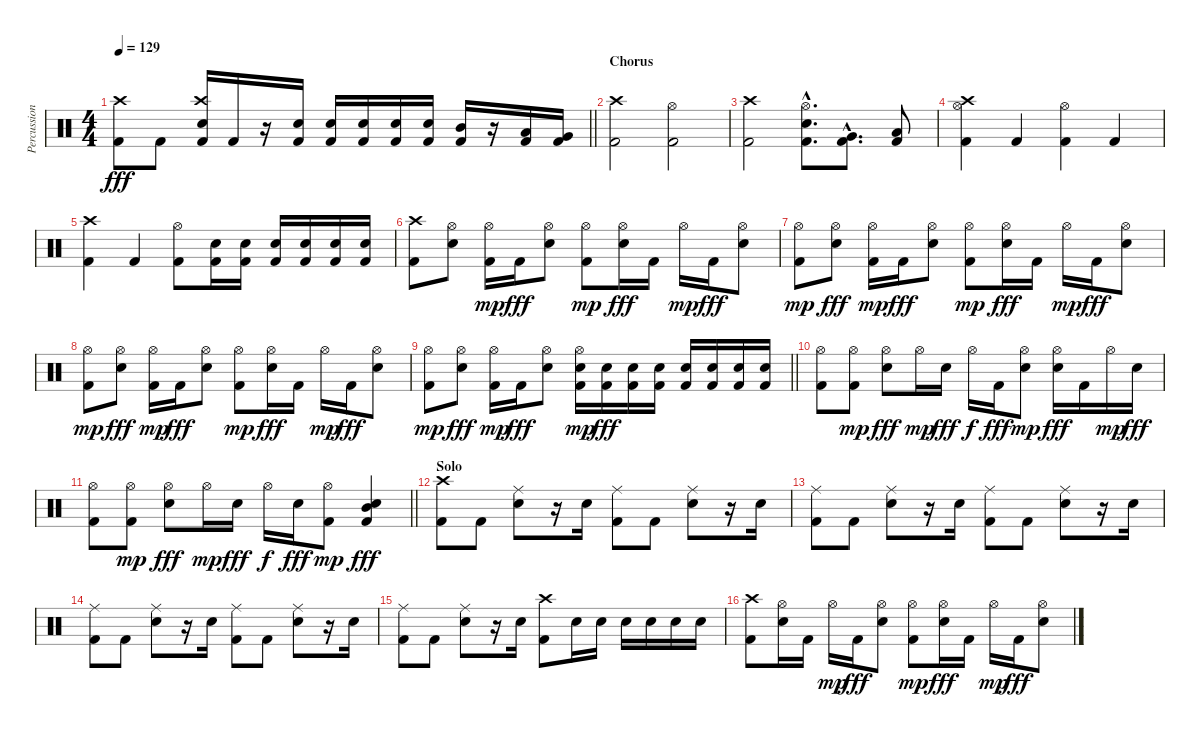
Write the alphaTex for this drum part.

\track ("Percussions" "Percussion") {instrument percussion}
\staff {score}
\articulation defaults
\ts (4 4)
\tempo 129
\clef neutral
\barLineRight lightlight
\ks c
("Kick (hit) 2" "Crash high (hit)").8{dy fff} "Kick (hit) 2".8 ("Kick (hit) 2" "Snare (hit) 2" "Crash high (hit)").16 "Kick (hit) 2".16 r.16 ("Kick (hit) 2" "Snare (hit) 2").16 ("Kick (hit) 2" "Snare (hit) 2").16 ("Kick (hit) 2" "Snare (hit) 2").16 ("Kick (hit) 2" "Snare (hit) 2").16 ("Kick (hit) 2" "Snare (hit) 2").16 ("Kick (hit) 2" "Mid Tom (hit)").16 r.16 ("Kick (hit) 2" "Low Tom (hit)").16 ("Kick (hit) 2" "Very Low Tom (hit)").16 |
\section ("" "Chorus")
("Kick (hit) 2" "Crash high (hit)").2 ("Kick (hit) 2" "Hi-Hat (open)").2 |
("Kick (hit) 2" "Crash high (hit)").2 ("Kick (hit) 2"{hac} "Snare (hit) 2"{hac} "Hi-Hat (open)"{hac}).8{d} ("Kick (hit) 2"{hac} "Very Low Tom (hit)"{hac}).8{d} ("Kick (hit) 2" "Low Tom (hit)").8 |
("Kick (hit) 2" "Crash high (hit)" "Hi-Hat (open)").4 "Kick (hit) 2".4 ("Kick (hit) 2" "Hi-Hat (open)").4 "Kick (hit) 2".4 |
("Kick (hit) 2" "Crash high (hit)").4 "Kick (hit) 2".4 ("Kick (hit) 2" "Hi-Hat (open)").8 ("Kick (hit) 2" "Snare (hit) 2").16 ("Kick (hit) 2" "Snare (hit) 2").16 ("Kick (hit) 2" "Snare (hit) 2").16 ("Kick (hit) 2" "Snare (hit) 2").16 ("Kick (hit) 2" "Snare (hit) 2").16 ("Kick (hit) 2" "Snare (hit) 2").16 |
("Kick (hit) 2" "Crash high (hit)").8 ("Snare (hit) 2" "Hi-Hat (open)").8 ("Kick (hit) 2" "Hi-Hat (open)").16{dy mp} "Kick (hit) 2".16{dy fff} ("Snare (hit) 2" "Hi-Hat (open)").8 ("Kick (hit) 2" "Hi-Hat (open)").8{dy mp} ("Snare (hit) 2" "Hi-Hat (open)").16{dy fff} "Kick (hit) 2".16 "Hi-Hat (open)".16{dy mp} "Kick (hit) 2".16{dy fff} ("Snare (hit) 2" "Hi-Hat (open)").8 |
("Kick (hit) 2" "Hi-Hat (open)").8{dy mp} ("Snare (hit) 2" "Hi-Hat (open)").8{dy fff} ("Kick (hit) 2" "Hi-Hat (open)").16{dy mp} "Kick (hit) 2".16{dy fff} ("Snare (hit) 2" "Hi-Hat (open)").8 ("Kick (hit) 2" "Hi-Hat (open)").8{dy mp} ("Snare (hit) 2" "Hi-Hat (open)").16{dy fff} "Kick (hit) 2".16 "Hi-Hat (open)".16{dy mp} "Kick (hit) 2".16{dy fff} ("Snare (hit) 2" "Hi-Hat (open)").8 |
("Kick (hit) 2" "Hi-Hat (open)").8{dy mp} ("Snare (hit) 2" "Hi-Hat (open)").8{dy fff} ("Kick (hit) 2" "Hi-Hat (open)").16{dy mp} "Kick (hit) 2".16{dy fff} ("Snare (hit) 2" "Hi-Hat (open)").8 ("Kick (hit) 2" "Hi-Hat (open)").8{dy mp} ("Snare (hit) 2" "Hi-Hat (open)").16{dy fff} "Kick (hit) 2".16 "Hi-Hat (open)".16{dy mp} "Kick (hit) 2".16{dy fff} ("Snare (hit) 2" "Hi-Hat (open)").8 |
\barLineRight lightlight
("Kick (hit) 2" "Hi-Hat (open)").8{dy mp} ("Snare (hit) 2" "Hi-Hat (open)").8{dy fff} ("Kick (hit) 2" "Hi-Hat (open)").16{dy mp} "Kick (hit) 2".16{dy fff} ("Snare (hit) 2" "Hi-Hat (open)").8 ("Kick (hit) 2" "Snare (hit) 2" "Hi-Hat (open)").16{dy mp} ("Kick (hit) 2" "Snare (hit) 2").16{dy fff} ("Kick (hit) 2" "Snare (hit) 2").16 ("Kick (hit) 2" "Snare (hit) 2").16 ("Kick (hit) 2" "Snare (hit) 2").16 ("Kick (hit) 2" "Snare (hit) 2").16 ("Kick (hit) 2" "Snare (hit) 2").16 ("Kick (hit) 2" "Snare (hit) 2").16 |
("Kick (hit) 2" "Hi-Hat (open)").8 ("Kick (hit) 2" "Hi-Hat (open)").8{dy mp} ("Snare (hit) 2" "Hi-Hat (open)").8{dy fff} "Hi-Hat (open)".16{dy mp} "Snare (hit) 2".16{dy fff} "Hi-Hat (open)".16{dy f} "Kick (hit) 2".16{dy fff} ("Snare (hit) 2" "Hi-Hat (open)").8{dy mp} ("Snare (hit) 2" "Hi-Hat (open)").16{dy fff} "Kick (hit) 2".16 "Hi-Hat (open)".16{dy mp} "Snare (hit) 2".16{dy fff} |
\barLineRight lightlight
("Kick (hit) 2" "Hi-Hat (open)").8 ("Kick (hit) 2" "Hi-Hat (open)").8{dy mp} ("Snare (hit) 2" "Hi-Hat (open)").8{dy fff} "Hi-Hat (open)".16{dy mp} "Snare (hit) 2".16{dy fff} "Hi-Hat (open)".16{dy f} "Snare (hit) 2".16{dy fff} ("Kick (hit) 2" "Hi-Hat (open)").8{dy mp} ("Kick (hit) 2" "Snare (hit) 2" "Mid Tom (hit)").4{dy fff} |
\section ("" "Solo")
("Kick (hit) 2" "Crash high (hit)").8 "Kick (hit) 2".8 ("Snare (hit) 2" "Ride (middle)").8 r.16 "Snare (hit) 2".16 ("Kick (hit) 2" "Ride (middle)").8 "Kick (hit) 2".8 ("Snare (hit) 2" "Ride (middle)").8 r.16 "Snare (hit) 2".16 |
("Kick (hit) 2" "Ride (middle)").8 "Kick (hit) 2".8 ("Snare (hit) 2" "Ride (middle)").8 r.16 "Snare (hit) 2".16 ("Kick (hit) 2" "Ride (middle)").8 "Kick (hit) 2".8 ("Snare (hit) 2" "Ride (middle)").8 r.16 "Snare (hit) 2".16 |
("Kick (hit) 2" "Ride (middle)").8 "Kick (hit) 2".8 ("Snare (hit) 2" "Ride (middle)").8 r.16 "Snare (hit) 2".16 ("Kick (hit) 2" "Ride (middle)").8 "Kick (hit) 2".8 ("Snare (hit) 2" "Ride (middle)").8 r.16 "Snare (hit) 2".16 |
("Kick (hit) 2" "Ride (middle)").8 "Kick (hit) 2".8 ("Snare (hit) 2" "Ride (middle)").8 r.16 "Snare (hit) 2".16 ("Kick (hit) 2" "Crash high (hit)").8 "Snare (hit) 2".16 "Snare (hit) 2".16 "Snare (hit) 2".16 "Snare (hit) 2".16 "Snare (hit) 2".16 "Snare (hit) 2".16 |
("Kick (hit) 2" "Crash high (hit)").8 ("Snare (hit) 2" "Hi-Hat (open)").16 "Kick (hit) 2".16 "Hi-Hat (open)".16{dy mp} "Kick (hit) 2".16{dy fff} ("Snare (hit) 2" "Hi-Hat (open)").8 ("Kick (hit) 2" "Hi-Hat (open)").8{dy mp} ("Snare (hit) 2" "Hi-Hat (open)").16{dy fff} "Kick (hit) 2".16 "Hi-Hat (open)".16{dy mp} "Kick (hit) 2".16{dy fff} ("Snare (hit) 2" "Hi-Hat (open)").8
